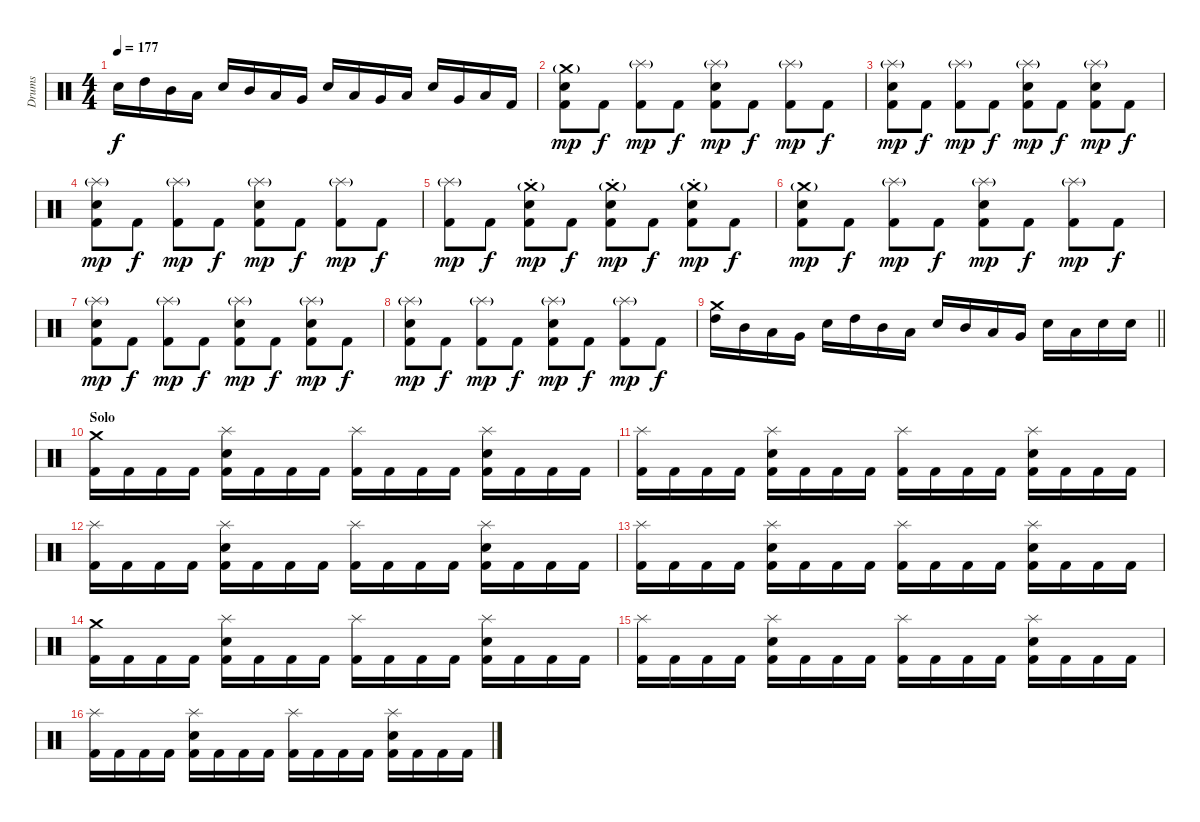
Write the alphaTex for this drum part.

\track ("Drums" "Drums") {instrument percussion}
\staff {score}
\articulation defaults
\ts (4 4)
\tempo 177
\clef neutral
\ks c "Snare (hit) 2".16{dy f} "High Tom (hit)".16 "Mid Tom (hit)".16 "Low Tom (hit)".16 "Snare (hit) 2".16 "Mid Tom (hit)".16 "Low Tom (hit)".16 "Very Low Tom (hit)".16 "Snare (hit) 2".16 "Low Tom (hit)".16 "Very Low Tom (hit)".16 "Low Floor Tom (hit)".16 "Snare (hit) 2".16 "Very Low Tom (hit)".16 "Low Floor Tom (hit)".16 "Kick (hit) 2".16
|
("Kick (hit) 2" "Snare (hit) 2" "Crash medium (hit)"{g}).8{dy mp} "Kick (hit) 2".8{dy f} ("Kick (hit) 2" "Splash (hit)"{g}).8{dy mp} "Kick (hit) 2".8{dy f} ("Kick (hit) 2" "Snare (hit) 2" "Splash (hit)"{g}).8{dy mp} "Kick (hit) 2".8{dy f} ("Kick (hit) 2" "Splash (hit)"{g}).8{dy mp} "Kick (hit) 2".8{dy f} |
("Kick (hit) 2" "Snare (hit) 2" "Splash (hit)"{g}).8{dy mp} "Kick (hit) 2".8{dy f} ("Kick (hit) 2" "Splash (hit)"{g}).8{dy mp} "Kick (hit) 2".8{dy f} ("Kick (hit) 2" "Snare (hit) 2" "Splash (hit)"{g}).8{dy mp} "Kick (hit) 2".8{dy f} ("Kick (hit) 2" "Snare (hit) 2" "Splash (hit)"{g}).8{dy mp} "Kick (hit) 2".8{dy f} |
("Kick (hit) 2" "Snare (hit) 2" "Splash (hit)"{g}).8{dy mp} "Kick (hit) 2".8{dy f} ("Kick (hit) 2" "Splash (hit)"{g}).8{dy mp} "Kick (hit) 2".8{dy f} ("Kick (hit) 2" "Snare (hit) 2" "Splash (hit)"{g}).8{dy mp} "Kick (hit) 2".8{dy f} ("Kick (hit) 2" "Splash (hit)"{g}).8{dy mp} "Kick (hit) 2".8{dy f} |
("Kick (hit) 2" "Splash (hit)"{g}).8{dy mp} "Kick (hit) 2".8{dy f} ("Kick (hit) 2" "Snare (hit) 2" "Crash medium (hit)"{g st}).8{dy mp} "Kick (hit) 2".8{dy f} ("Kick (hit) 2" "Snare (hit) 2" "Crash medium (hit)"{g st}).8{dy mp} "Kick (hit) 2".8{dy f} ("Kick (hit) 2" "Snare (hit) 2" "Crash medium (hit)"{g st}).8{dy mp} "Kick (hit) 2".8{dy f} |
("Kick (hit) 2" "Snare (hit) 2" "Crash medium (hit)"{g}).8{dy mp} "Kick (hit) 2".8{dy f} ("Kick (hit) 2" "Splash (hit)"{g}).8{dy mp} "Kick (hit) 2".8{dy f} ("Kick (hit) 2" "Snare (hit) 2" "Splash (hit)"{g}).8{dy mp} "Kick (hit) 2".8{dy f} ("Kick (hit) 2" "Splash (hit)"{g}).8{dy mp} "Kick (hit) 2".8{dy f} |
("Kick (hit) 2" "Snare (hit) 2" "Splash (hit)"{g}).8{dy mp} "Kick (hit) 2".8{dy f} ("Kick (hit) 2" "Splash (hit)"{g}).8{dy mp} "Kick (hit) 2".8{dy f} ("Kick (hit) 2" "Snare (hit) 2" "Splash (hit)"{g}).8{dy mp} "Kick (hit) 2".8{dy f} ("Kick (hit) 2" "Snare (hit) 2" "Splash (hit)"{g}).8{dy mp} "Kick (hit) 2".8{dy f} |
("Kick (hit) 2" "Snare (hit) 2" "Splash (hit)"{g}).8{dy mp} "Kick (hit) 2".8{dy f} ("Kick (hit) 2" "Splash (hit)"{g}).8{dy mp} "Kick (hit) 2".8{dy f} ("Kick (hit) 2" "Snare (hit) 2" "Splash (hit)"{g}).8{dy mp} "Kick (hit) 2".8{dy f} ("Kick (hit) 2" "Splash (hit)"{g}).8{dy mp} "Kick (hit) 2".8{dy f} |
\barLineRight lightlight
("High Tom (hit)" "Crash medium (hit)").16 "Mid Tom (hit)".16 "Low Tom (hit)".16 "Very Low Tom (hit)".16 "Snare (hit) 2".16 "High Tom (hit)".16 "Mid Tom (hit)".16 "Low Tom (hit)".16 "Snare (hit) 2".16 "Mid Tom (hit)".16 "Low Tom (hit)".16 "Very Low Tom (hit)".16 "Snare (hit) 2".16 "Low Tom (hit)".16 "Snare (hit) 2".16 "Snare (hit) 2".16 |
\section ("" "Solo")
("Kick (hit) 2" "Crash medium (hit)").16 "Kick (hit) 2".16 "Kick (hit) 2".16 "Kick (hit) 2".16 ("Kick (hit) 2" "Snare (hit) 2" "Splash (hit)").16 "Kick (hit) 2".16 "Kick (hit) 2".16 "Kick (hit) 2".16 ("Kick (hit) 2" "Splash (hit)").16 "Kick (hit) 2".16 "Kick (hit) 2".16 "Kick (hit) 2".16 ("Kick (hit) 2" "Snare (hit) 2" "Splash (hit)").16 "Kick (hit) 2".16 "Kick (hit) 2".16 "Kick (hit) 2".16 |
("Kick (hit) 2" "Splash (hit)").16 "Kick (hit) 2".16 "Kick (hit) 2".16 "Kick (hit) 2".16 ("Kick (hit) 2" "Snare (hit) 2" "Splash (hit)").16 "Kick (hit) 2".16 "Kick (hit) 2".16 "Kick (hit) 2".16 ("Kick (hit) 2" "Splash (hit)").16 "Kick (hit) 2".16 "Kick (hit) 2".16 "Kick (hit) 2".16 ("Kick (hit) 2" "Snare (hit) 2" "Splash (hit)").16 "Kick (hit) 2".16 "Kick (hit) 2".16 "Kick (hit) 2".16 |
("Kick (hit) 2" "Splash (hit)").16 "Kick (hit) 2".16 "Kick (hit) 2".16 "Kick (hit) 2".16 ("Kick (hit) 2" "Snare (hit) 2" "Splash (hit)").16 "Kick (hit) 2".16 "Kick (hit) 2".16 "Kick (hit) 2".16 ("Kick (hit) 2" "Splash (hit)").16 "Kick (hit) 2".16 "Kick (hit) 2".16 "Kick (hit) 2".16 ("Kick (hit) 2" "Snare (hit) 2" "Splash (hit)").16 "Kick (hit) 2".16 "Kick (hit) 2".16 "Kick (hit) 2".16 |
("Kick (hit) 2" "Splash (hit)").16 "Kick (hit) 2".16 "Kick (hit) 2".16 "Kick (hit) 2".16 ("Kick (hit) 2" "Snare (hit) 2" "Splash (hit)").16 "Kick (hit) 2".16 "Kick (hit) 2".16 "Kick (hit) 2".16 ("Kick (hit) 2" "Splash (hit)").16 "Kick (hit) 2".16 "Kick (hit) 2".16 "Kick (hit) 2".16 ("Kick (hit) 2" "Snare (hit) 2" "Splash (hit)").16 "Kick (hit) 2".16 "Kick (hit) 2".16 "Kick (hit) 2".16 |
("Kick (hit) 2" "Crash medium (hit)").16 "Kick (hit) 2".16 "Kick (hit) 2".16 "Kick (hit) 2".16 ("Kick (hit) 2" "Snare (hit) 2" "Splash (hit)").16 "Kick (hit) 2".16 "Kick (hit) 2".16 "Kick (hit) 2".16 ("Kick (hit) 2" "Splash (hit)").16 "Kick (hit) 2".16 "Kick (hit) 2".16 "Kick (hit) 2".16 ("Kick (hit) 2" "Snare (hit) 2" "Splash (hit)").16 "Kick (hit) 2".16 "Kick (hit) 2".16 "Kick (hit) 2".16 |
("Kick (hit) 2" "Splash (hit)").16 "Kick (hit) 2".16 "Kick (hit) 2".16 "Kick (hit) 2".16 ("Kick (hit) 2" "Snare (hit) 2" "Splash (hit)").16 "Kick (hit) 2".16 "Kick (hit) 2".16 "Kick (hit) 2".16 ("Kick (hit) 2" "Splash (hit)").16 "Kick (hit) 2".16 "Kick (hit) 2".16 "Kick (hit) 2".16 ("Kick (hit) 2" "Snare (hit) 2" "Splash (hit)").16 "Kick (hit) 2".16 "Kick (hit) 2".16 "Kick (hit) 2".16 |
("Kick (hit) 2" "Splash (hit)").16 "Kick (hit) 2".16 "Kick (hit) 2".16 "Kick (hit) 2".16 ("Kick (hit) 2" "Snare (hit) 2" "Splash (hit)").16 "Kick (hit) 2".16 "Kick (hit) 2".16 "Kick (hit) 2".16 ("Kick (hit) 2" "Splash (hit)").16 "Kick (hit) 2".16 "Kick (hit) 2".16 "Kick (hit) 2".16 ("Kick (hit) 2" "Snare (hit) 2" "Splash (hit)").16 "Kick (hit) 2".16 "Kick (hit) 2".16 "Kick (hit) 2".16
